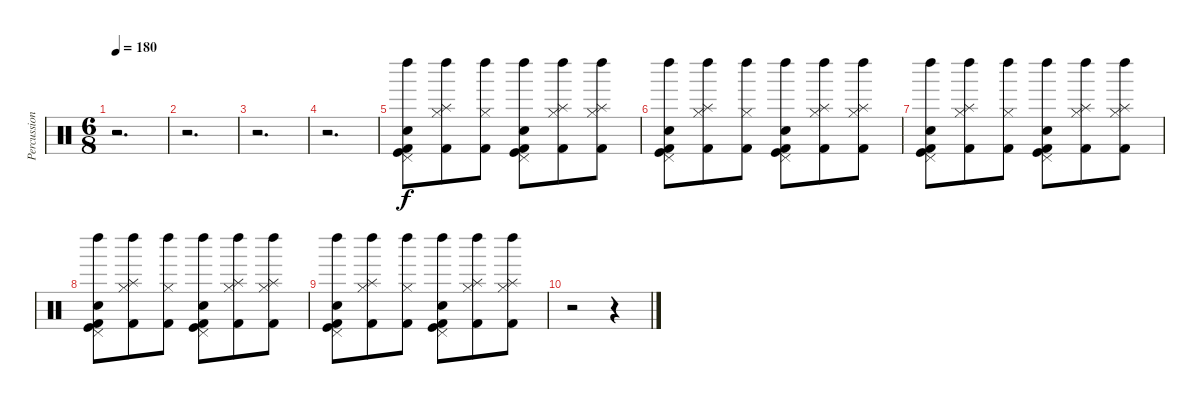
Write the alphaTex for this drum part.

\track ("Percussion" "Percussion") {instrument percussion}
\staff {score}
\articulation defaults
\ts (6 8)
\tempo 180
\clef neutral
\ks c
r.2{d dy f} |
r.2{d} |
r.2{d} |
r.2{d} |
("Snare (hit) 2" "Kick (hit) 2" "Pedal Hi-Hat (hit)" "Kick (hit)" "Left Maraca (hit)").8 ("Hi-Hat (closed)" "Kick (hit) 2" "Splash (hit)" "Left Maraca (hit)").8 ("Kick (hit) 2" "Hi-Hat (closed)" "Left Maraca (hit)").8 ("Snare (hit) 2" "Kick (hit) 2" "Pedal Hi-Hat (hit)" "Kick (hit)" "Left Maraca (hit)").8 ("Hi-Hat (closed)" "Kick (hit) 2" "Splash (hit)" "Left Maraca (hit)").8 ("Kick (hit) 2" "Hi-Hat (closed)" "Splash (hit)" "Left Maraca (hit)").8 |
("Snare (hit) 2" "Kick (hit) 2" "Pedal Hi-Hat (hit)" "Kick (hit)" "Left Maraca (hit)").8 ("Hi-Hat (closed)" "Kick (hit) 2" "Splash (hit)" "Left Maraca (hit)").8 ("Kick (hit) 2" "Hi-Hat (closed)" "Left Maraca (hit)").8 ("Snare (hit) 2" "Kick (hit) 2" "Pedal Hi-Hat (hit)" "Kick (hit)" "Left Maraca (hit)").8 ("Hi-Hat (closed)" "Kick (hit) 2" "Splash (hit)" "Left Maraca (hit)").8 ("Kick (hit) 2" "Hi-Hat (closed)" "Splash (hit)" "Left Maraca (hit)").8 |
("Snare (hit) 2" "Kick (hit) 2" "Pedal Hi-Hat (hit)" "Kick (hit)" "Left Maraca (hit)").8 ("Hi-Hat (closed)" "Kick (hit) 2" "Splash (hit)" "Left Maraca (hit)").8 ("Kick (hit) 2" "Hi-Hat (closed)" "Left Maraca (hit)").8 ("Snare (hit) 2" "Kick (hit) 2" "Pedal Hi-Hat (hit)" "Kick (hit)" "Left Maraca (hit)").8 ("Hi-Hat (closed)" "Kick (hit) 2" "Splash (hit)" "Left Maraca (hit)").8 ("Kick (hit) 2" "Hi-Hat (closed)" "Splash (hit)" "Left Maraca (hit)").8 |
("Snare (hit) 2" "Kick (hit) 2" "Pedal Hi-Hat (hit)" "Kick (hit)" "Left Maraca (hit)").8 ("Hi-Hat (closed)" "Kick (hit) 2" "Splash (hit)" "Left Maraca (hit)").8 ("Kick (hit) 2" "Hi-Hat (closed)" "Left Maraca (hit)").8 ("Snare (hit) 2" "Kick (hit) 2" "Pedal Hi-Hat (hit)" "Kick (hit)" "Left Maraca (hit)").8 ("Hi-Hat (closed)" "Kick (hit) 2" "Splash (hit)" "Left Maraca (hit)").8 ("Kick (hit) 2" "Hi-Hat (closed)" "Splash (hit)" "Left Maraca (hit)").8 |
("Snare (hit) 2" "Kick (hit) 2" "Pedal Hi-Hat (hit)" "Kick (hit)" "Left Maraca (hit)").8 ("Hi-Hat (closed)" "Kick (hit) 2" "Splash (hit)" "Left Maraca (hit)").8 ("Kick (hit) 2" "Hi-Hat (closed)" "Left Maraca (hit)").8 ("Snare (hit) 2" "Kick (hit) 2" "Pedal Hi-Hat (hit)" "Kick (hit)" "Left Maraca (hit)").8 ("Hi-Hat (closed)" "Kick (hit) 2" "Splash (hit)" "Left Maraca (hit)").8 ("Kick (hit) 2" "Hi-Hat (closed)" "Splash (hit)" "Left Maraca (hit)").8 |
r.2 r.4
